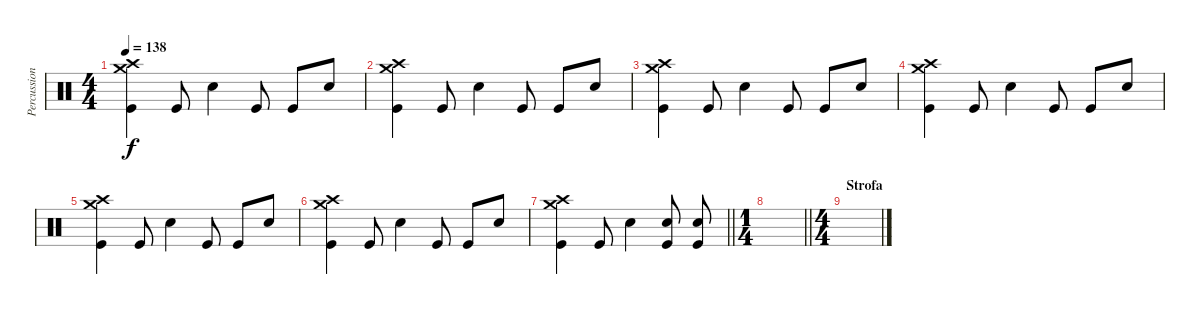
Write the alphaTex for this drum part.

\track ("Percussioni" "Percussion") {instrument percussion}
\staff {score}
\articulation defaults
\ts (4 4)
\tempo 138
\clef neutral
\ks c
("Crash medium (hit)" "Crash high (hit)" "Kick (hit)").4{dy f} "Kick (hit)".8 "Electric Snare (hit)".4 "Kick (hit)".8 "Kick (hit)".8 "Electric Snare (hit)".8 |
("Crash medium (hit)" "Crash high (hit)" "Kick (hit)").4 "Kick (hit)".8 "Electric Snare (hit)".4 "Kick (hit)".8 "Kick (hit)".8 "Electric Snare (hit)".8 |
("Crash medium (hit)" "Crash high (hit)" "Kick (hit)").4 "Kick (hit)".8 "Electric Snare (hit)".4 "Kick (hit)".8 "Kick (hit)".8 "Electric Snare (hit)".8 |
("Crash medium (hit)" "Crash high (hit)" "Kick (hit)").4 "Kick (hit)".8 "Electric Snare (hit)".4 "Kick (hit)".8 "Kick (hit)".8 "Electric Snare (hit)".8 |
("Crash medium (hit)" "Crash high (hit)" "Kick (hit)").4 "Kick (hit)".8 "Electric Snare (hit)".4 "Kick (hit)".8 "Kick (hit)".8 "Electric Snare (hit)".8 |
("Crash medium (hit)" "Crash high (hit)" "Kick (hit)").4 "Kick (hit)".8 "Electric Snare (hit)".4 "Kick (hit)".8 "Kick (hit)".8 "Electric Snare (hit)".8 |
\barLineRight lightlight
("Crash medium (hit)" "Crash high (hit)" "Kick (hit)").4 "Kick (hit)".8 "Electric Snare (hit)".4 ("Kick (hit)" "Electric Snare (hit)").8 ("Kick (hit)" "Electric Snare (hit)").8 |
\ts (1 4)
\barLineRight lightlight
|
\ts (4 4)
\section ("" "Strofa")
